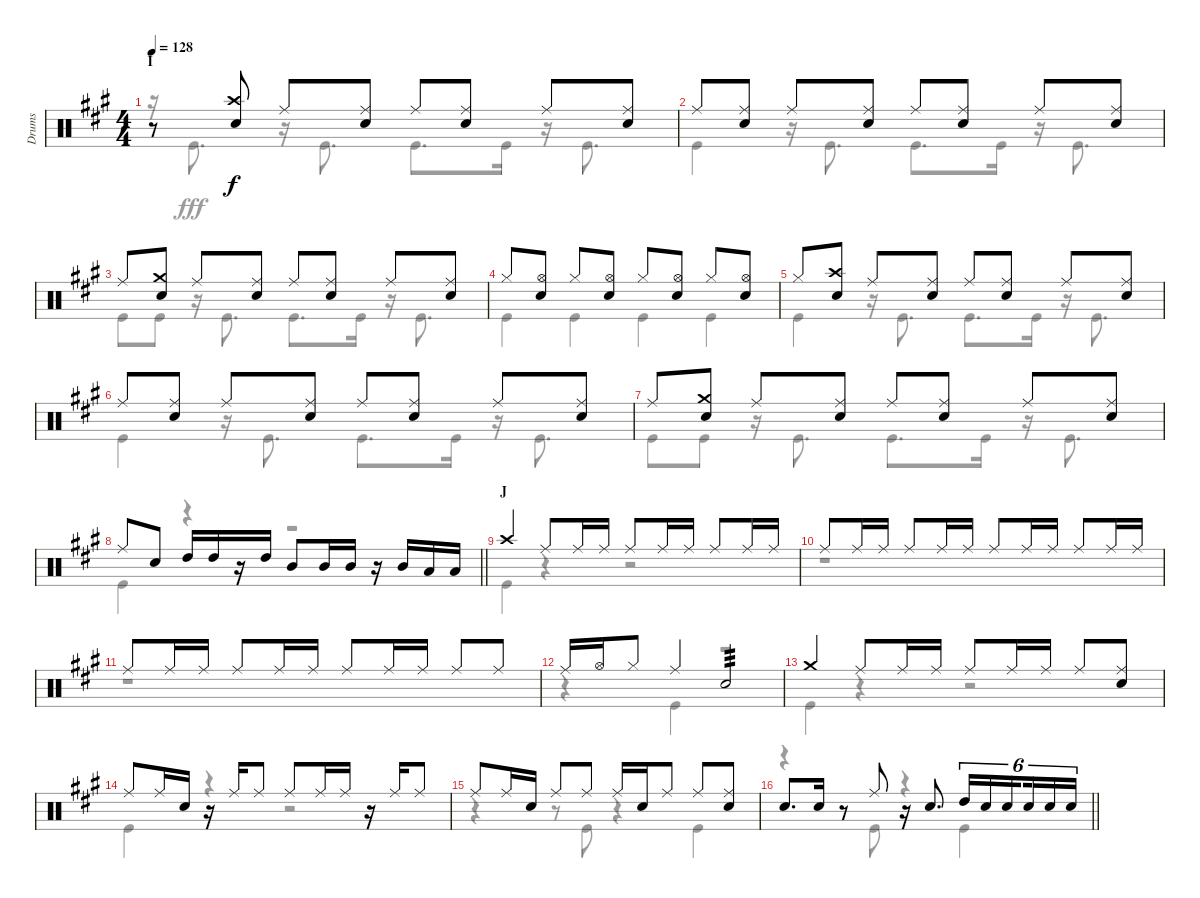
\track ("Drums" "Drums") {instrument percussion}
\staff {score}
\articulation defaults
\voice
\ts (4 4)
\section ("" "I")
\tempo 128
\clef neutral
\ks a
r.8{dy f} ("Crash high (hit)" "Snare (hit) 2").8 "Ride (middle)".8 ("Ride (middle)" "Snare (hit) 2").8 "Ride (middle)".8 ("Ride (middle)" "Snare (hit) 2").8 "Ride (middle)".8 ("Ride (middle)" "Snare (hit) 2").8 |
"Ride (middle)".8 ("Ride (middle)" "Snare (hit) 2").8 "Ride (middle)".8 ("Ride (middle)" "Snare (hit) 2").8 "Ride (middle)".8 ("Ride (middle)" "Snare (hit) 2").8 "Ride (middle)".8 ("Ride (middle)" "Snare (hit) 2").8 |
"Ride (middle)".8 ("Crash medium (hit)" "Snare (hit) 2").8 "Ride (middle)".8 ("Ride (middle)" "Snare (hit) 2").8 "Ride (middle)".8 ("Ride (middle)" "Snare (hit) 2").8 "Ride (middle)".8 ("Ride (middle)" "Snare (hit) 2").8 |
"Hi-Hat (closed)".8 ("Hi-Hat (open)" "Snare (hit) 2").8 "Hi-Hat (closed)".8 ("Hi-Hat (open)" "Snare (hit) 2").8 "Hi-Hat (closed)".8 ("Hi-Hat (open)" "Snare (hit) 2").8 "Hi-Hat (closed)".8 ("Hi-Hat (open)" "Snare (hit) 2").8 |
"Hi-Hat (closed)".8 ("Crash high (hit)" "Snare (hit) 2").8 "Ride (middle)".8 ("Ride (middle)" "Snare (hit) 2").8 "Ride (middle)".8 ("Ride (middle)" "Snare (hit) 2").8 "Ride (middle)".8 ("Ride (middle)" "Snare (hit) 2").8 |
"Ride (middle)".8 ("Ride (middle)" "Snare (hit) 2").8 "Ride (middle)".8 ("Ride (middle)" "Snare (hit) 2").8 "Ride (middle)".8 ("Ride (middle)" "Snare (hit) 2").8 "Ride (middle)".8 ("Ride (middle)" "Snare (hit) 2").8 |
"Ride (middle)".8 ("Crash medium (hit)" "Snare (hit) 2").8 "Ride (middle)".8 ("Ride (middle)" "Snare (hit) 2").8 "Ride (middle)".8 ("Ride (middle)" "Snare (hit) 2").8 "Ride (middle)".8 ("Ride (middle)" "Snare (hit) 2").8 |
\barLineRight lightlight "Ride (middle)".8 "Snare (hit) 2".8 "High Tom (hit)".16 "High Tom (hit)".16
r.16 "High Tom (hit)".16 "Mid Tom (hit)".8 "Mid Tom (hit)".16 "Mid Tom (hit)".16 r.16 "Mid Tom (hit)".16 "Low Tom (hit)".16 "Low Tom (hit)".16 |
\section ("" "J")
"Crash high (hit)".4 "Ride (middle)".8 "Ride (middle)".16 "Ride (middle)".16 "Ride (middle)".8 "Ride (middle)".16 "Ride (middle)".16 "Ride (middle)".8 "Ride (middle)".16 "Ride (middle)".16 |
"Ride (middle)".8 "Ride (middle)".16 "Ride (middle)".16 "Ride (middle)".8 "Ride (middle)".16 "Ride (middle)".16 "Ride (middle)".8 "Ride (middle)".16 "Ride (middle)".16 "Ride (middle)".8 "Ride (middle)".16 "Ride (middle)".16 |
"Ride (middle)".8 "Ride (middle)".16 "Ride (middle)".16 "Ride (middle)".8 "Ride (middle)".16 "Ride (middle)".16 "Ride (middle)".8 "Ride (middle)".16 "Ride (middle)".16 "Ride (middle)".8 "Ride (middle)".8 |
"Ride (middle)".16 "Hi-Hat (open)".16 "Hi-Hat (closed)".8 "Ride (middle)".4 "Snare (hit) 2".2{tp 3} |
"Crash medium (hit)".4 "Ride (middle)".8 "Ride (middle)".16 "Ride (middle)".16 "Ride (middle)".8 "Ride (middle)".16 "Ride (middle)".16 "Ride (middle)".8 ("Ride (middle)" "Snare (hit) 2").8 |
"Ride (middle)".8 "Ride (middle)".16 "Snare (hit) 2".16 r.16 "Ride (middle)".16 "Ride (middle)".8 "Ride (middle)".8 "Ride (middle)".16 "Ride (middle)".16 r.16 "Ride (middle)".16 "Ride (middle)".8 |
"Ride (middle)".8 "Ride (middle)".16 "Snare (hit) 2".16 "Ride (middle)".8 "Ride (middle)".8 "Ride (middle)".16 "Snare (hit) 2".16 "Ride (middle)".8 "Ride (middle)".8 ("Ride (middle)" "Snare (hit) 2").8 |
\barLineRight lightlight "Snare (hit) 2".8{d} "Snare (hit) 2".16
r.8 "Ride (middle)".8 r.16 "Snare (hit) 2".8{d} "High Tom (hit)".16{tu (6 4)} "Snare (hit) 2".16{tu (6 4)} "Snare (hit) 2".16{tu (6 4) beam splitsecondary} "Snare (hit) 2".16{tu (6 4)} "Snare (hit) 2".16{tu (6 4)} "Snare (hit) 2".16{tu (6 4)}
\voice
\clef neutral
\ottava regular
\simile none
\ks a
r.16{dy fff} "Kick (hit)".8{d} r.16 "Kick (hit)".8{d} "Kick (hit)".8{d} "Kick (hit)".16 r.16 "Kick (hit)".8{d} |
"Kick (hit)".4 r.16 "Kick (hit)".8{d} "Kick (hit)".8{d} "Kick (hit)".16 r.16 "Kick (hit)".8{d} |
"Kick (hit)".8 "Kick (hit)".8 r.16 "Kick (hit)".8{d} "Kick (hit)".8{d} "Kick (hit)".16 r.16 "Kick (hit)".8{d} |
"Kick (hit)".4 "Kick (hit)".4 "Kick (hit)".4 "Kick (hit)".4 |
"Kick (hit)".4 r.16 "Kick (hit)".8{d} "Kick (hit)".8{d} "Kick (hit)".16 r.16 "Kick (hit)".8{d} |
"Kick (hit)".4 r.16 "Kick (hit)".8{d} "Kick (hit)".8{d} "Kick (hit)".16 r.16 "Kick (hit)".8{d} |
"Kick (hit)".8 "Kick (hit)".8 r.16 "Kick (hit)".8{d} "Kick (hit)".8{d} "Kick (hit)".16 r.16 "Kick (hit)".8{d} |
\barLineRight lightlight "Kick (hit)".4
r.4 r.2 |
"Kick (hit)".4 r.4 r.2 |
r.1 |
r.1 |
r.4 "Kick (hit)".4 r.2 |
"Kick (hit)".4 r.4 r.2 |
"Kick (hit)".4 r.4 r.2 |
r.4 r.8 "Kick (hit)".8 r.4 "Kick (hit)".4 |
\barLineRight lightlight
r.4 r.8 "Kick (hit)".8 r.4 "Kick (hit)".4
